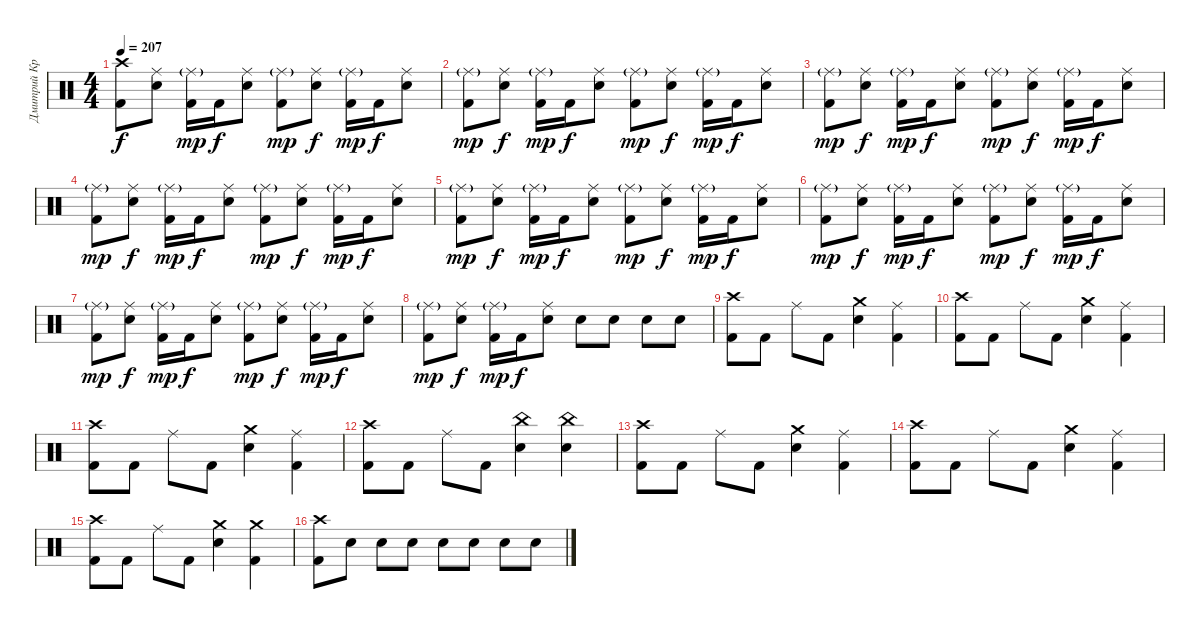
\track ("Дмитрий Кривенков" "Дмитрий Кр") {instrument percussion}
\staff {score}
\articulation defaults
\ts (4 4)
\tempo 207
\clef neutral
\ks c
("Crash high (hit)" "Kick (hit) 2").8{dy f} ("Ride (middle)" "Electric Snare (hit)").8 ("Ride (middle)"{g} "Kick (hit) 2").16{dy mp} "Kick (hit) 2".16{dy f} ("Ride (middle)" "Electric Snare (hit)").8 ("Ride (middle)"{g} "Kick (hit) 2").8{dy mp} ("Ride (middle)" "Electric Snare (hit)").8{dy f} ("Ride (middle)"{g} "Kick (hit) 2").16{dy mp} "Kick (hit) 2".16{dy f} ("Ride (middle)" "Electric Snare (hit)").8 |
("Ride (middle)"{g} "Kick (hit) 2").8{dy mp} ("Ride (middle)" "Electric Snare (hit)").8{dy f} ("Ride (middle)"{g} "Kick (hit) 2").16{dy mp} "Kick (hit) 2".16{dy f} ("Ride (middle)" "Electric Snare (hit)").8 ("Ride (middle)"{g} "Kick (hit) 2").8{dy mp} ("Ride (middle)" "Electric Snare (hit)").8{dy f} ("Ride (middle)"{g} "Kick (hit) 2").16{dy mp} "Kick (hit) 2".16{dy f} ("Ride (middle)" "Electric Snare (hit)").8 |
("Ride (middle)"{g} "Kick (hit) 2").8{dy mp} ("Ride (middle)" "Electric Snare (hit)").8{dy f} ("Ride (middle)"{g} "Kick (hit) 2").16{dy mp} "Kick (hit) 2".16{dy f} ("Ride (middle)" "Electric Snare (hit)").8 ("Ride (middle)"{g} "Kick (hit) 2").8{dy mp} ("Ride (middle)" "Electric Snare (hit)").8{dy f} ("Ride (middle)"{g} "Kick (hit) 2").16{dy mp} "Kick (hit) 2".16{dy f} ("Ride (middle)" "Electric Snare (hit)").8 |
("Ride (middle)"{g} "Kick (hit) 2").8{dy mp} ("Ride (middle)" "Electric Snare (hit)").8{dy f} ("Ride (middle)"{g} "Kick (hit) 2").16{dy mp} "Kick (hit) 2".16{dy f} ("Ride (middle)" "Electric Snare (hit)").8 ("Ride (middle)"{g} "Kick (hit) 2").8{dy mp} ("Ride (middle)" "Electric Snare (hit)").8{dy f} ("Ride (middle)"{g} "Kick (hit) 2").16{dy mp} "Kick (hit) 2".16{dy f} ("Ride (middle)" "Electric Snare (hit)").8 |
("Ride (middle)"{g} "Kick (hit) 2").8{dy mp} ("Ride (middle)" "Electric Snare (hit)").8{dy f} ("Ride (middle)"{g} "Kick (hit) 2").16{dy mp} "Kick (hit) 2".16{dy f} ("Ride (middle)" "Electric Snare (hit)").8 ("Ride (middle)"{g} "Kick (hit) 2").8{dy mp} ("Ride (middle)" "Electric Snare (hit)").8{dy f} ("Ride (middle)"{g} "Kick (hit) 2").16{dy mp} "Kick (hit) 2".16{dy f} ("Ride (middle)" "Electric Snare (hit)").8 |
("Ride (middle)"{g} "Kick (hit) 2").8{dy mp} ("Ride (middle)" "Electric Snare (hit)").8{dy f} ("Ride (middle)"{g} "Kick (hit) 2").16{dy mp} "Kick (hit) 2".16{dy f} ("Ride (middle)" "Electric Snare (hit)").8 ("Ride (middle)"{g} "Kick (hit) 2").8{dy mp} ("Ride (middle)" "Electric Snare (hit)").8{dy f} ("Ride (middle)"{g} "Kick (hit) 2").16{dy mp} "Kick (hit) 2".16{dy f} ("Ride (middle)" "Electric Snare (hit)").8 |
("Ride (middle)"{g} "Kick (hit) 2").8{dy mp} ("Ride (middle)" "Electric Snare (hit)").8{dy f} ("Ride (middle)"{g} "Kick (hit) 2").16{dy mp} "Kick (hit) 2".16{dy f} ("Ride (middle)" "Electric Snare (hit)").8 ("Ride (middle)"{g} "Kick (hit) 2").8{dy mp} ("Ride (middle)" "Electric Snare (hit)").8{dy f} ("Ride (middle)"{g} "Kick (hit) 2").16{dy mp} "Kick (hit) 2".16{dy f} ("Ride (middle)" "Electric Snare (hit)").8 |
("Ride (middle)"{g} "Kick (hit) 2").8{dy mp} ("Ride (middle)" "Electric Snare (hit)").8{dy f} ("Ride (middle)"{g} "Kick (hit) 2").16{dy mp} "Kick (hit) 2".16{dy f} ("Ride (middle)" "Electric Snare (hit)").8 "Electric Snare (hit)".8 "Electric Snare (hit)".8 "Electric Snare (hit)".8 "Electric Snare (hit)".8 |
("Crash high (hit)" "Kick (hit) 2").8 "Kick (hit) 2".8 "Ride (middle)".8 "Kick (hit) 2".8 ("Crash medium (hit)" "Electric Snare (hit)").4 ("Ride (middle)" "Kick (hit) 2").4 |
("Crash high (hit)" "Kick (hit) 2").8 "Kick (hit) 2".8 "Ride (middle)".8 "Kick (hit) 2".8 ("Crash medium (hit)" "Electric Snare (hit)").4 ("Ride (middle)" "Kick (hit) 2").4 |
("Crash high (hit)" "Kick (hit) 2").8 "Kick (hit) 2".8 "Ride (middle)".8 "Kick (hit) 2".8 ("Crash medium (hit)" "Electric Snare (hit)").4 ("Ride (middle)" "Kick (hit) 2").4 |
("Crash high (hit)" "Kick (hit) 2").8 "Kick (hit) 2".8 "Ride (middle)".8 "Kick (hit) 2".8 ("China (hit)" "Electric Snare (hit)").4 ("China (hit)" "Electric Snare (hit)").4 |
("Crash high (hit)" "Kick (hit) 2").8 "Kick (hit) 2".8 "Ride (middle)".8 "Kick (hit) 2".8 ("Crash medium (hit)" "Electric Snare (hit)").4 ("Ride (middle)" "Kick (hit) 2").4 |
("Crash high (hit)" "Kick (hit) 2").8 "Kick (hit) 2".8 "Ride (middle)".8 "Kick (hit) 2".8 ("Crash medium (hit)" "Electric Snare (hit)").4 ("Ride (middle)" "Kick (hit) 2").4 |
("Crash high (hit)" "Kick (hit) 2").8 "Kick (hit) 2".8 "Ride (middle)".8 "Kick (hit) 2".8 ("Crash medium (hit)" "Electric Snare (hit)").4 ("Crash medium (hit)" "Kick (hit) 2").4 |
("Crash high (hit)" "Kick (hit) 2").8 "Electric Snare (hit)".8 "Electric Snare (hit)".8 "Electric Snare (hit)".8 "Electric Snare (hit)".8 "Electric Snare (hit)".8 "Electric Snare (hit)".8 "Electric Snare (hit)".8
